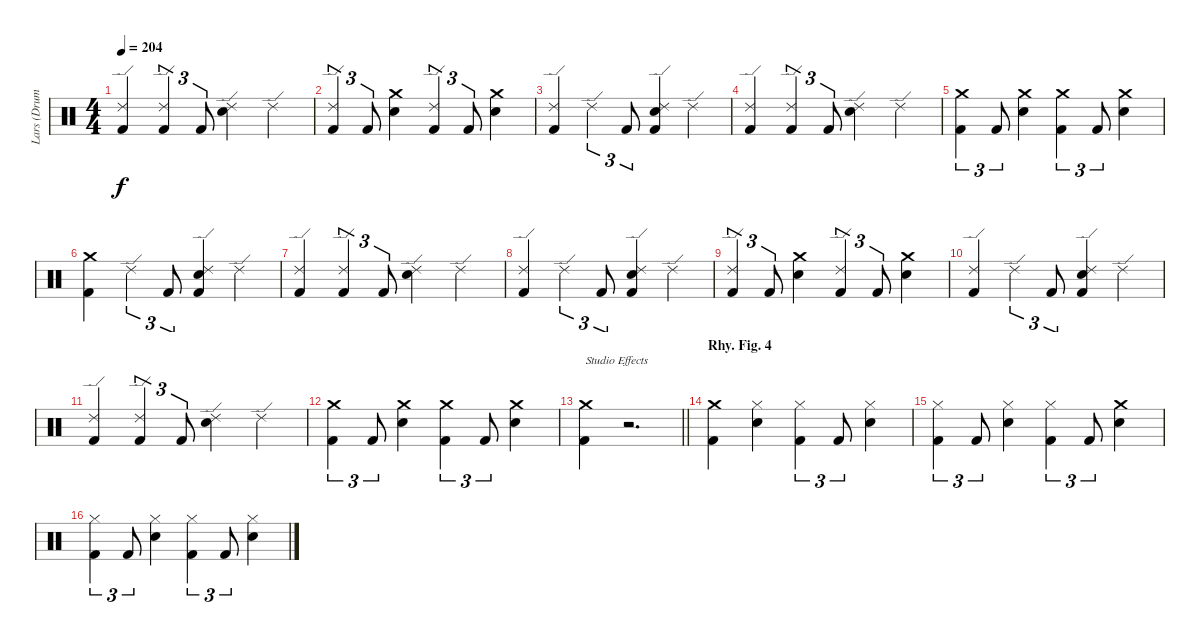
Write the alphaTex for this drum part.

\track ("Lars (Drums)" "Lars (Drum") {instrument percussion}
\staff {score}
\articulation defaults
\ts (4 4)
\tempo 204
\clef neutral
\ks c
("Kick (hit) 2" "Ride (edge) 2").4{dy f} ("Kick (hit) 2" "Ride (edge) 2").4{tu (3 2)} "Kick (hit) 2".8{tu (3 2)} ("Ride (edge) 2" "Snare (hit) 2").4 "Ride (edge) 2".4 |
("Ride (edge) 2" "Kick (hit) 2").4{tu (3 2)} "Kick (hit) 2".8{tu (3 2)} ("Snare (hit) 2" "Crash medium (hit)").4 ("Ride (edge) 2" "Kick (hit) 2").4{tu (3 2)} "Kick (hit) 2".8{tu (3 2)} ("Snare (hit) 2" "Crash medium (hit)").4 |
("Ride (edge) 2" "Kick (hit) 2").4 "Ride (edge) 2".4{tu (3 2)} "Kick (hit) 2".8{tu (3 2)} ("Ride (edge) 2" "Snare (hit) 2" "Kick (hit) 2").4 "Ride (edge) 2".4 |
("Kick (hit) 2" "Ride (edge) 2").4 ("Ride (edge) 2" "Kick (hit) 2").4{tu (3 2)} "Kick (hit) 2".8{tu (3 2)} ("Snare (hit) 2" "Ride (edge) 2").4 "Ride (edge) 2".4 |
("Kick (hit) 2" "Crash medium (hit)").4{tu (3 2)} "Kick (hit) 2".8{tu (3 2)} ("Snare (hit) 2" "Crash medium (hit)").4 ("Kick (hit) 2" "Crash medium (hit)").4{tu (3 2)} "Kick (hit) 2".8{tu (3 2)} ("Snare (hit) 2" "Crash medium (hit)").4 |
("Kick (hit) 2" "Crash medium (hit)").4 "Ride (edge) 2".4{tu (3 2)} "Kick (hit) 2".8{tu (3 2)} ("Kick (hit) 2" "Snare (hit) 2" "Ride (edge) 2").4 "Ride (edge) 2".4 |
("Kick (hit) 2" "Ride (edge) 2").4 ("Ride (edge) 2" "Kick (hit) 2").4{tu (3 2)} "Kick (hit) 2".8{tu (3 2)} ("Snare (hit) 2" "Ride (edge) 2").4 "Ride (edge) 2".4 |
("Kick (hit) 2" "Ride (edge) 2").4 "Ride (edge) 2".4{tu (3 2)} "Kick (hit) 2".8{tu (3 2)} ("Ride (edge) 2" "Snare (hit) 2" "Kick (hit) 2").4 "Ride (edge) 2".4 |
("Ride (edge) 2" "Kick (hit) 2").4{tu (3 2)} "Kick (hit) 2".8{tu (3 2)} ("Snare (hit) 2" "Crash medium (hit)").4 ("Ride (edge) 2" "Kick (hit) 2").4{tu (3 2)} "Kick (hit) 2".8{tu (3 2)} ("Snare (hit) 2" "Crash medium (hit)").4 |
("Ride (edge) 2" "Kick (hit) 2").4 "Ride (edge) 2".4{tu (3 2)} "Kick (hit) 2".8{tu (3 2)} ("Ride (edge) 2" "Snare (hit) 2" "Kick (hit) 2").4 "Ride (edge) 2".4 |
("Kick (hit) 2" "Ride (edge) 2").4 ("Ride (edge) 2" "Kick (hit) 2").4{tu (3 2)} "Kick (hit) 2".8{tu (3 2)} ("Snare (hit) 2" "Ride (edge) 2").4 "Ride (edge) 2".4 |
("Kick (hit) 2" "Crash medium (hit)").4{tu (3 2)} "Kick (hit) 2".8{tu (3 2)} ("Snare (hit) 2" "Crash medium (hit)").4 ("Kick (hit) 2" "Crash medium (hit)").4{tu (3 2)} "Kick (hit) 2".8{tu (3 2)} ("Snare (hit) 2" "Crash medium (hit)").4 |
\barLineRight lightlight
("Kick (hit) 2" "Crash medium (hit)").4{txt "Studio Effects"} r.2{d} |
\section ("" "Rhy. Fig. 4")
("Kick (hit) 2" "Crash medium (hit)").4 ("Hi-Hat (closed)" "Snare (hit) 2").4 ("Hi-Hat (closed)" "Kick (hit) 2").4{tu (3 2)} "Kick (hit) 2".8{tu (3 2)} ("Snare (hit) 2" "Hi-Hat (closed)").4 |
("Hi-Hat (closed)" "Kick (hit) 2").4{tu (3 2)} "Kick (hit) 2".8{tu (3 2)} ("Snare (hit) 2" "Hi-Hat (closed)").4 ("Hi-Hat (closed)" "Kick (hit) 2").4{tu (3 2)} "Kick (hit) 2".8{tu (3 2)} ("Crash medium (hit)" "Snare (hit) 2").4 |
("Hi-Hat (closed)" "Kick (hit) 2").4{tu (3 2)} "Kick (hit) 2".8{tu (3 2)} ("Snare (hit) 2" "Hi-Hat (closed)").4 ("Hi-Hat (closed)" "Kick (hit) 2").4{tu (3 2)} "Kick (hit) 2".8{tu (3 2)} ("Snare (hit) 2" "Hi-Hat (closed)").4
